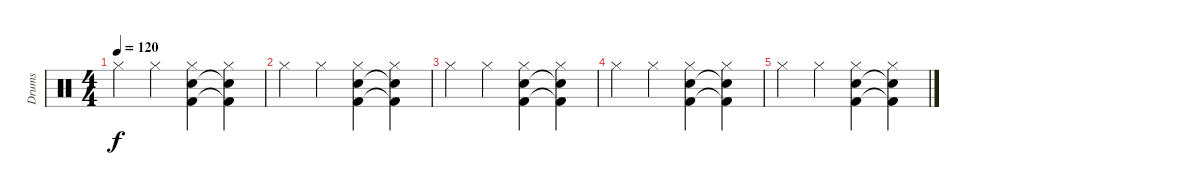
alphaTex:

\track ("Drums" "Drums") {instrument percussion}
\staff {score}
\articulation defaults
\ts (4 4)
\tempo 120
\clef neutral
\ks c "Hi-Hat (closed)".4{dy f} "Hi-Hat (closed)".4
("Hi-Hat (closed)" "Snare (hit) 2" "Kick (hit) 2").4 ("Hi-Hat (closed)" "Snare (hit) 2"{t} "Kick (hit) 2"{t}).4 |
"Hi-Hat (closed)".4 "Hi-Hat (closed)".4 ("Hi-Hat (closed)" "Snare (hit) 2" "Kick (hit) 2").4 ("Hi-Hat (closed)" "Snare (hit) 2"{t} "Kick (hit) 2"{t}).4 |
"Hi-Hat (closed)".4 "Hi-Hat (closed)".4 ("Hi-Hat (closed)" "Snare (hit) 2" "Kick (hit) 2").4 ("Hi-Hat (closed)" "Snare (hit) 2"{t} "Kick (hit) 2"{t}).4 |
"Hi-Hat (closed)".4 "Hi-Hat (closed)".4 ("Hi-Hat (closed)" "Snare (hit) 2" "Kick (hit) 2").4 ("Hi-Hat (closed)" "Snare (hit) 2"{t} "Kick (hit) 2"{t}).4 |
"Hi-Hat (closed)".4 "Hi-Hat (closed)".4 ("Hi-Hat (closed)" "Snare (hit) 2" "Kick (hit) 2").4 ("Hi-Hat (closed)" "Snare (hit) 2"{t} "Kick (hit) 2"{t}).4
